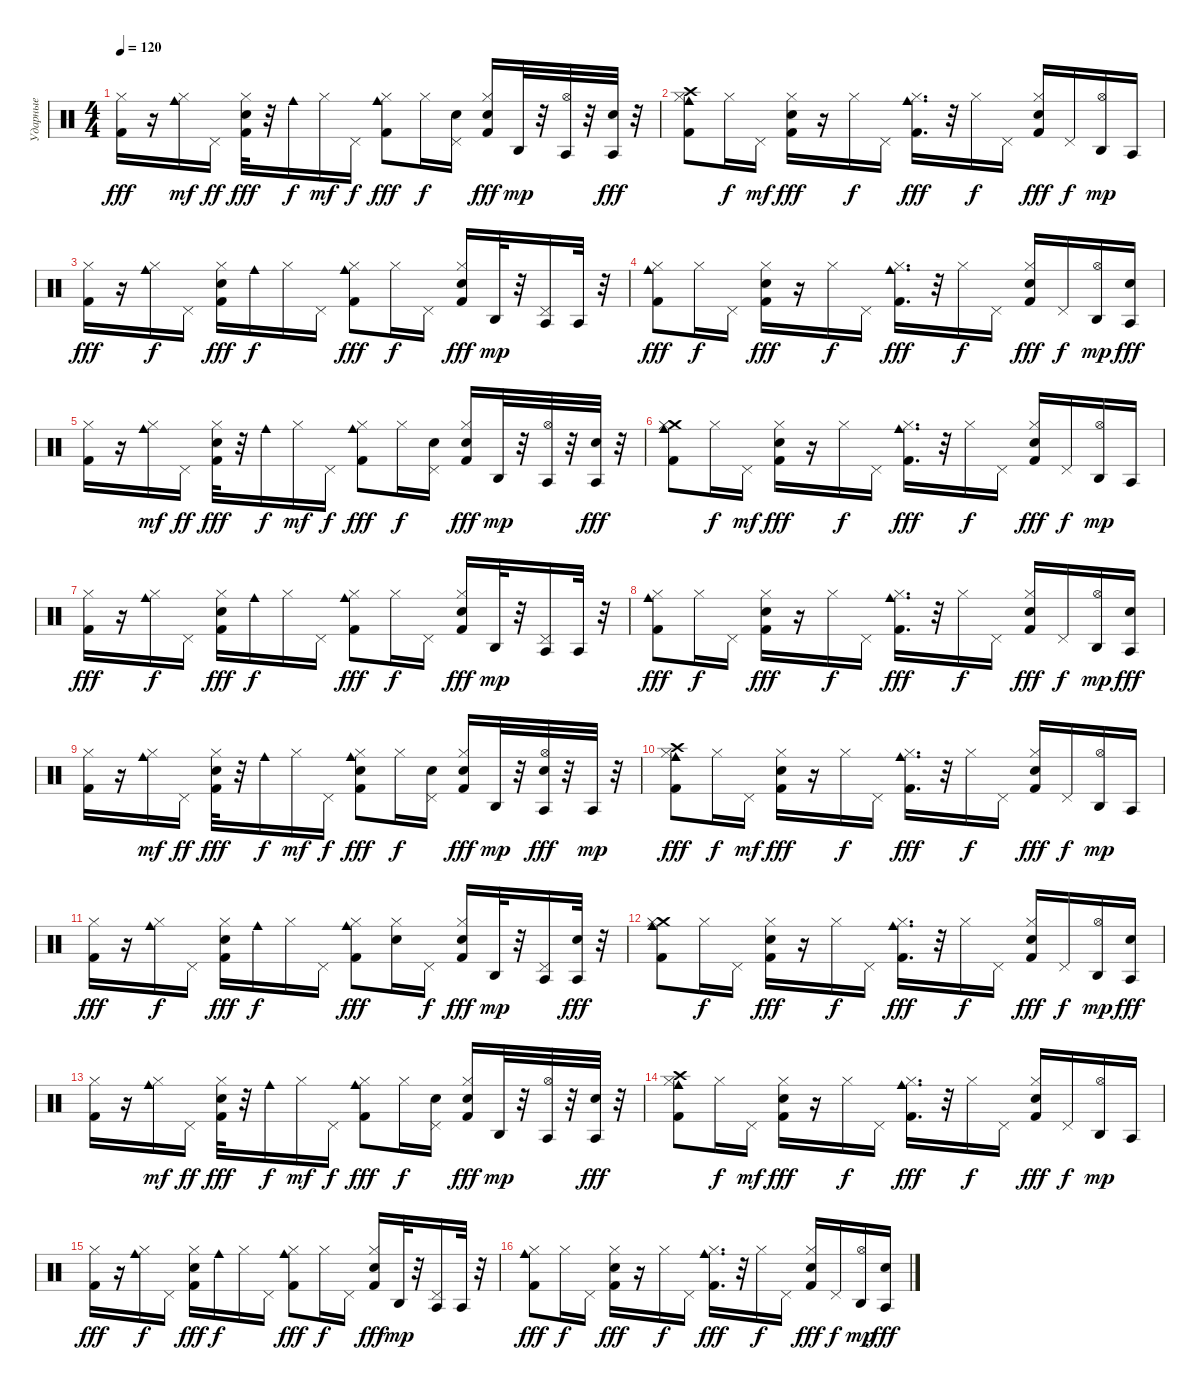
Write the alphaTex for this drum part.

\track ("Ударные" "Ударные") {instrument percussion}
\staff {score}
\articulation defaults
\ts (4 4)
\tempo 120
\clef neutral
\ks c
("Kick (hit) 2" "Hi-Hat (closed)").16{dy fff} r.16 ("Cowbell medium (hit)" "Hi-Hat (closed)").16{dy mf} "Pedal Hi-Hat (hit)".16{dy ff} ("Electric Snare (hit)" "Kick (hit) 2" "Hi-Hat (closed)").32{dy fff} r.32 "Cowbell medium (hit)".16{dy f} "Hi-Hat (closed)".16{dy mf} "Pedal Hi-Hat (hit)".16{dy f} ("Cowbell medium (hit)" "Hi-Hat (closed)" "Kick (hit) 2").8{dy fff} "Hi-Hat (closed)".16{dy f} ("Pedal Hi-Hat (hit)" "Electric Snare (hit)").16 ("Hi-Hat (closed)" "Kick (hit) 2" "Electric Snare (hit)").16{dy fff} "Agogo high (hit)".32{dy mp} r.32 ("Agogo tow (hit)" "Hi-Hat (open)").32 r.32 ("Agogo tow (hit)" "Electric Snare (hit)").32{dy fff} r.32 |
("Cowbell medium (hit)" "Crash high (hit)" "Hi-Hat (closed)" "Kick (hit) 2").8 "Hi-Hat (closed)".16{dy f} "Pedal Hi-Hat (hit)".16{dy mf} ("Electric Snare (hit)" "Kick (hit) 2" "Hi-Hat (closed)").16{dy fff} r.16 "Hi-Hat (closed)".16{dy f} "Pedal Hi-Hat (hit)".16 ("Cowbell medium (hit)" "Kick (hit) 2" "Hi-Hat (closed)").16{d dy fff} r.32 "Hi-Hat (closed)".16{dy f} "Pedal Hi-Hat (hit)".16 ("Kick (hit) 2" "Electric Snare (hit)" "Hi-Hat (closed)").16{dy fff} "Pedal Hi-Hat (hit)".16{dy f} ("Agogo high (hit)" "Hi-Hat (open)").16{dy mp} "Agogo tow (hit)".16 |
("Kick (hit) 2" "Hi-Hat (closed)").16{dy fff} r.16 ("Cowbell medium (hit)" "Hi-Hat (closed)").16{dy f} "Pedal Hi-Hat (hit)".16 ("Hi-Hat (closed)" "Kick (hit) 2" "Electric Snare (hit)").16{dy fff} "Cowbell medium (hit)".16{dy f} "Hi-Hat (closed)".16 "Pedal Hi-Hat (hit)".16 ("Cowbell medium (hit)" "Kick (hit) 2" "Hi-Hat (closed)").8{dy fff} "Hi-Hat (closed)".16{dy f} "Pedal Hi-Hat (hit)".16 ("Electric Snare (hit)" "Kick (hit) 2" "Hi-Hat (closed)").16{dy fff} "Agogo high (hit)".32{dy mp} r.32 ("Agogo tow (hit)" "Pedal Hi-Hat (hit)").16 "Agogo tow (hit)".32 r.32 |
("Cowbell medium (hit)" "Kick (hit) 2" "Hi-Hat (closed)").8{dy fff} "Hi-Hat (closed)".16{dy f} "Pedal Hi-Hat (hit)".16 ("Electric Snare (hit)" "Kick (hit) 2" "Hi-Hat (closed)").16{dy fff} r.16 "Hi-Hat (closed)".16{dy f} "Pedal Hi-Hat (hit)".16 ("Cowbell medium (hit)" "Hi-Hat (closed)" "Kick (hit) 2").16{d dy fff} r.32 "Hi-Hat (closed)".16{dy f} "Pedal Hi-Hat (hit)".16 ("Kick (hit) 2" "Electric Snare (hit)" "Hi-Hat (closed)").16{dy fff} "Pedal Hi-Hat (hit)".16{dy f} ("Agogo high (hit)" "Hi-Hat (open)").16{dy mp} ("Agogo tow (hit)" "Electric Snare (hit)").16{dy fff} |
("Kick (hit) 2" "Hi-Hat (closed)").16 r.16 ("Cowbell medium (hit)" "Hi-Hat (closed)").16{dy mf} "Pedal Hi-Hat (hit)".16{dy ff} ("Electric Snare (hit)" "Kick (hit) 2" "Hi-Hat (closed)").32{dy fff} r.32 "Cowbell medium (hit)".16{dy f} "Hi-Hat (closed)".16{dy mf} "Pedal Hi-Hat (hit)".16{dy f} ("Cowbell medium (hit)" "Hi-Hat (closed)" "Kick (hit) 2").8{dy fff} "Hi-Hat (closed)".16{dy f} ("Pedal Hi-Hat (hit)" "Electric Snare (hit)").16 ("Hi-Hat (closed)" "Kick (hit) 2" "Electric Snare (hit)").16{dy fff} "Agogo high (hit)".32{dy mp} r.32 ("Agogo tow (hit)" "Hi-Hat (open)").32 r.32 ("Agogo tow (hit)" "Electric Snare (hit)").32{dy fff} r.32 |
("Cowbell medium (hit)" "Crash medium (hit)" "Hi-Hat (closed)" "Kick (hit) 2").8 "Hi-Hat (closed)".16{dy f} "Pedal Hi-Hat (hit)".16{dy mf} ("Electric Snare (hit)" "Kick (hit) 2" "Hi-Hat (closed)").16{dy fff} r.16 "Hi-Hat (closed)".16{dy f} "Pedal Hi-Hat (hit)".16 ("Cowbell medium (hit)" "Kick (hit) 2" "Hi-Hat (closed)").16{d dy fff} r.32 "Hi-Hat (closed)".16{dy f} "Pedal Hi-Hat (hit)".16 ("Kick (hit) 2" "Electric Snare (hit)" "Hi-Hat (closed)").16{dy fff} "Pedal Hi-Hat (hit)".16{dy f} ("Agogo high (hit)" "Hi-Hat (open)").16{dy mp} "Agogo tow (hit)".16 |
("Kick (hit) 2" "Hi-Hat (closed)").16{dy fff} r.16 ("Cowbell medium (hit)" "Hi-Hat (closed)").16{dy f} "Pedal Hi-Hat (hit)".16 ("Hi-Hat (closed)" "Kick (hit) 2" "Electric Snare (hit)").16{dy fff} "Cowbell medium (hit)".16{dy f} "Hi-Hat (closed)".16 "Pedal Hi-Hat (hit)".16 ("Cowbell medium (hit)" "Kick (hit) 2" "Hi-Hat (closed)").8{dy fff} "Hi-Hat (closed)".16{dy f} "Pedal Hi-Hat (hit)".16 ("Electric Snare (hit)" "Kick (hit) 2" "Hi-Hat (closed)").16{dy fff} "Agogo high (hit)".32{dy mp} r.32 ("Agogo tow (hit)" "Pedal Hi-Hat (hit)").16 "Agogo tow (hit)".32 r.32 |
("Cowbell medium (hit)" "Kick (hit) 2" "Hi-Hat (closed)").8{dy fff} "Hi-Hat (closed)".16{dy f} "Pedal Hi-Hat (hit)".16 ("Electric Snare (hit)" "Kick (hit) 2" "Hi-Hat (closed)").16{dy fff} r.16 "Hi-Hat (closed)".16{dy f} "Pedal Hi-Hat (hit)".16 ("Cowbell medium (hit)" "Hi-Hat (closed)" "Kick (hit) 2").16{d dy fff} r.32 "Hi-Hat (closed)".16{dy f} "Pedal Hi-Hat (hit)".16 ("Kick (hit) 2" "Electric Snare (hit)" "Hi-Hat (closed)").16{dy fff} "Pedal Hi-Hat (hit)".16{dy f} ("Agogo high (hit)" "Hi-Hat (open)").16{dy mp} ("Agogo tow (hit)" "Electric Snare (hit)").16{dy fff} |
("Kick (hit) 2" "Hi-Hat (closed)").16 r.16 ("Cowbell medium (hit)" "Hi-Hat (closed)").16{dy mf} "Pedal Hi-Hat (hit)".16{dy ff} ("Electric Snare (hit)" "Kick (hit) 2" "Hi-Hat (closed)").32{dy fff} r.32 "Cowbell medium (hit)".16{dy f} "Hi-Hat (closed)".16{dy mf} "Pedal Hi-Hat (hit)".16{dy f} ("Cowbell medium (hit)" "Electric Snare (hit)" "Hi-Hat (closed)" "Kick (hit) 2").8{dy fff} "Hi-Hat (closed)".16{dy f} ("Pedal Hi-Hat (hit)" "Electric Snare (hit)").16 ("Hi-Hat (closed)" "Kick (hit) 2" "Electric Snare (hit)").16{dy fff} "Agogo high (hit)".32{dy mp} r.32 ("Agogo tow (hit)" "Electric Snare (hit)" "Hi-Hat (open)").32{dy fff} r.32 "Agogo tow (hit)".32{dy mp} r.32 |
("Cowbell medium (hit)" "Crash high (hit)" "Hi-Hat (closed)" "Kick (hit) 2").8{dy fff} "Hi-Hat (closed)".16{dy f} "Pedal Hi-Hat (hit)".16{dy mf} ("Electric Snare (hit)" "Kick (hit) 2" "Hi-Hat (closed)").16{dy fff} r.16 "Hi-Hat (closed)".16{dy f} "Pedal Hi-Hat (hit)".16 ("Cowbell medium (hit)" "Kick (hit) 2" "Hi-Hat (closed)").16{d dy fff} r.32 "Hi-Hat (closed)".16{dy f} "Pedal Hi-Hat (hit)".16 ("Kick (hit) 2" "Electric Snare (hit)" "Hi-Hat (closed)").16{dy fff} "Pedal Hi-Hat (hit)".16{dy f} ("Agogo high (hit)" "Hi-Hat (open)").16{dy mp} "Agogo tow (hit)".16 |
("Kick (hit) 2" "Hi-Hat (closed)").16{dy fff} r.16 ("Cowbell medium (hit)" "Hi-Hat (closed)").16{dy f} "Pedal Hi-Hat (hit)".16 ("Hi-Hat (closed)" "Kick (hit) 2" "Electric Snare (hit)").16{dy fff} "Cowbell medium (hit)".16{dy f} "Hi-Hat (closed)".16 "Pedal Hi-Hat (hit)".16 ("Cowbell medium (hit)" "Kick (hit) 2" "Hi-Hat (closed)").8{dy fff} ("Hi-Hat (closed)" "Electric Snare (hit)").16 "Pedal Hi-Hat (hit)".16{dy f} ("Electric Snare (hit)" "Kick (hit) 2" "Hi-Hat (closed)").16{dy fff} "Agogo high (hit)".32{dy mp} r.32 ("Agogo tow (hit)" "Pedal Hi-Hat (hit)").16 ("Agogo tow (hit)" "Electric Snare (hit)").32{dy fff} r.32 |
("Cowbell medium (hit)" "Crash medium (hit)" "Kick (hit) 2" "Hi-Hat (closed)").8 "Hi-Hat (closed)".16{dy f} "Pedal Hi-Hat (hit)".16 ("Electric Snare (hit)" "Kick (hit) 2" "Hi-Hat (closed)").16{dy fff} r.16 "Hi-Hat (closed)".16{dy f} "Pedal Hi-Hat (hit)".16 ("Cowbell medium (hit)" "Hi-Hat (closed)" "Kick (hit) 2").16{d dy fff} r.32 "Hi-Hat (closed)".16{dy f} "Pedal Hi-Hat (hit)".16 ("Kick (hit) 2" "Electric Snare (hit)" "Hi-Hat (closed)").16{dy fff} "Pedal Hi-Hat (hit)".16{dy f} ("Agogo high (hit)" "Hi-Hat (open)").16{dy mp} ("Agogo tow (hit)" "Electric Snare (hit)").16{dy fff} |
("Kick (hit) 2" "Hi-Hat (closed)").16 r.16 ("Cowbell medium (hit)" "Hi-Hat (closed)").16{dy mf} "Pedal Hi-Hat (hit)".16{dy ff} ("Electric Snare (hit)" "Kick (hit) 2" "Hi-Hat (closed)").32{dy fff} r.32 "Cowbell medium (hit)".16{dy f} "Hi-Hat (closed)".16{dy mf} "Pedal Hi-Hat (hit)".16{dy f} ("Cowbell medium (hit)" "Hi-Hat (closed)" "Kick (hit) 2").8{dy fff} "Hi-Hat (closed)".16{dy f} ("Pedal Hi-Hat (hit)" "Electric Snare (hit)").16 ("Hi-Hat (closed)" "Kick (hit) 2" "Electric Snare (hit)").16{dy fff} "Agogo high (hit)".32{dy mp} r.32 ("Agogo tow (hit)" "Hi-Hat (open)").32 r.32 ("Agogo tow (hit)" "Electric Snare (hit)").32{dy fff} r.32 |
("Cowbell medium (hit)" "Crash high (hit)" "Hi-Hat (closed)" "Kick (hit) 2").8 "Hi-Hat (closed)".16{dy f} "Pedal Hi-Hat (hit)".16{dy mf} ("Electric Snare (hit)" "Kick (hit) 2" "Hi-Hat (closed)").16{dy fff} r.16 "Hi-Hat (closed)".16{dy f} "Pedal Hi-Hat (hit)".16 ("Cowbell medium (hit)" "Kick (hit) 2" "Hi-Hat (closed)").16{d dy fff} r.32 "Hi-Hat (closed)".16{dy f} "Pedal Hi-Hat (hit)".16 ("Kick (hit) 2" "Electric Snare (hit)" "Hi-Hat (closed)").16{dy fff} "Pedal Hi-Hat (hit)".16{dy f} ("Agogo high (hit)" "Hi-Hat (open)").16{dy mp} "Agogo tow (hit)".16 |
("Kick (hit) 2" "Hi-Hat (closed)").16{dy fff} r.16 ("Cowbell medium (hit)" "Hi-Hat (closed)").16{dy f} "Pedal Hi-Hat (hit)".16 ("Hi-Hat (closed)" "Kick (hit) 2" "Electric Snare (hit)").16{dy fff} "Cowbell medium (hit)".16{dy f} "Hi-Hat (closed)".16 "Pedal Hi-Hat (hit)".16 ("Cowbell medium (hit)" "Kick (hit) 2" "Hi-Hat (closed)").8{dy fff} "Hi-Hat (closed)".16{dy f} "Pedal Hi-Hat (hit)".16 ("Electric Snare (hit)" "Kick (hit) 2" "Hi-Hat (closed)").16{dy fff} "Agogo high (hit)".32{dy mp} r.32 ("Agogo tow (hit)" "Pedal Hi-Hat (hit)").16 "Agogo tow (hit)".32 r.32 |
("Cowbell medium (hit)" "Kick (hit) 2" "Hi-Hat (closed)").8{dy fff} "Hi-Hat (closed)".16{dy f} "Pedal Hi-Hat (hit)".16 ("Electric Snare (hit)" "Kick (hit) 2" "Hi-Hat (closed)").16{dy fff} r.16 "Hi-Hat (closed)".16{dy f} "Pedal Hi-Hat (hit)".16 ("Cowbell medium (hit)" "Hi-Hat (closed)" "Kick (hit) 2").16{d dy fff} r.32 "Hi-Hat (closed)".16{dy f} "Pedal Hi-Hat (hit)".16 ("Kick (hit) 2" "Electric Snare (hit)" "Hi-Hat (closed)").16{dy fff} "Pedal Hi-Hat (hit)".16{dy f} ("Agogo high (hit)" "Hi-Hat (open)").16{dy mp} ("Agogo tow (hit)" "Electric Snare (hit)").16{dy fff}
